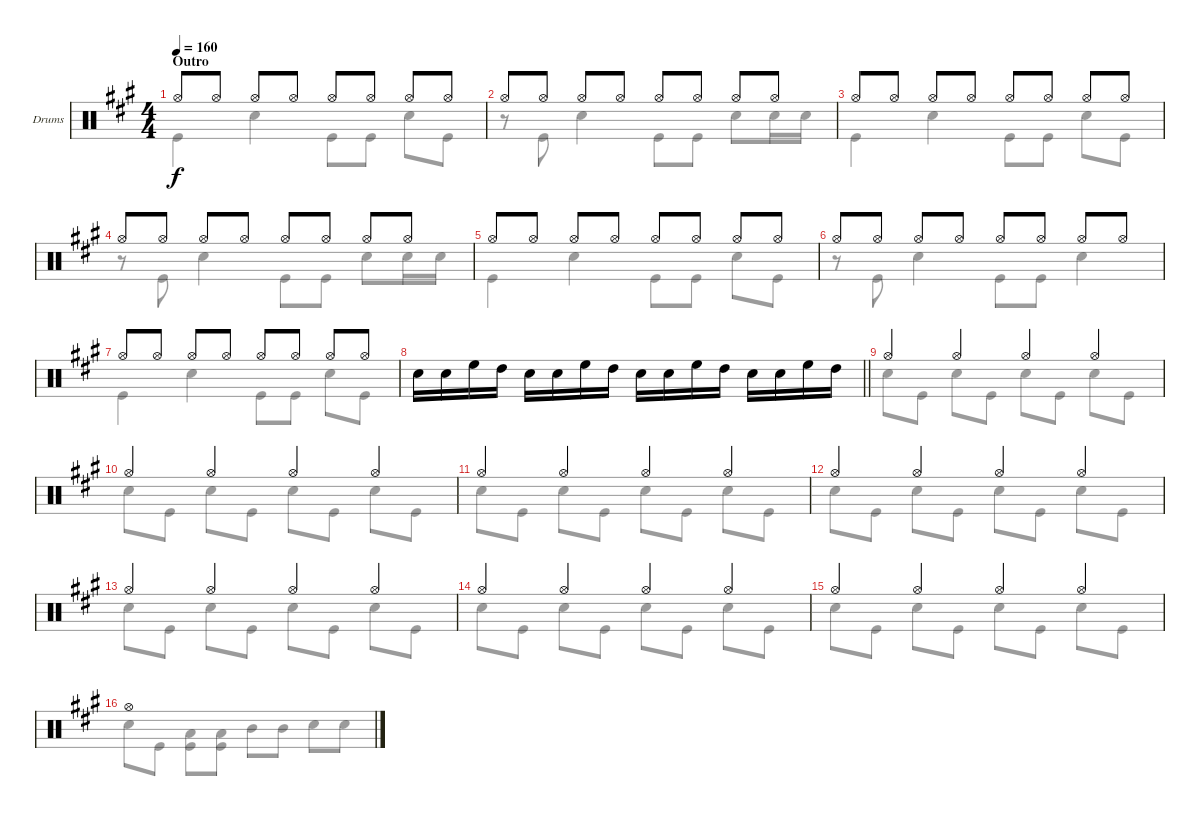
\bracketExtendMode groupsimilarinstruments
\firstSystemTrackNameOrientation horizontal
\otherSystemsTrackNameOrientation horizontal
\track ("Drumkit" "Drums") {instrument percussion}
\staff {score}
\articulation defaults
\voice
\ts (4 4)
\section ("" "Outro")
\tempo 160
\clef neutral
\ks a "Hi-Hat (open)".8{dy f} "Hi-Hat (open)".8 "Hi-Hat (open)".8 "Hi-Hat (open)".8 "Hi-Hat (open)".8 "Hi-Hat (open)".8 "Hi-Hat (open)".8 "Hi-Hat (open)".8
|
"Hi-Hat (open)".8 "Hi-Hat (open)".8 "Hi-Hat (open)".8 "Hi-Hat (open)".8 "Hi-Hat (open)".8 "Hi-Hat (open)".8 "Hi-Hat (open)".8 "Hi-Hat (open)".8 |
"Hi-Hat (open)".8 "Hi-Hat (open)".8 "Hi-Hat (open)".8 "Hi-Hat (open)".8 "Hi-Hat (open)".8 "Hi-Hat (open)".8 "Hi-Hat (open)".8 "Hi-Hat (open)".8 |
"Hi-Hat (open)".8 "Hi-Hat (open)".8 "Hi-Hat (open)".8 "Hi-Hat (open)".8 "Hi-Hat (open)".8 "Hi-Hat (open)".8 "Hi-Hat (open)".8 "Hi-Hat (open)".8 |
"Hi-Hat (open)".8 "Hi-Hat (open)".8 "Hi-Hat (open)".8 "Hi-Hat (open)".8 "Hi-Hat (open)".8 "Hi-Hat (open)".8 "Hi-Hat (open)".8 "Hi-Hat (open)".8 |
"Hi-Hat (open)".8 "Hi-Hat (open)".8 "Hi-Hat (open)".8 "Hi-Hat (open)".8 "Hi-Hat (open)".8 "Hi-Hat (open)".8 "Hi-Hat (open)".8 "Hi-Hat (open)".8 |
"Hi-Hat (open)".8 "Hi-Hat (open)".8 "Hi-Hat (open)".8 "Hi-Hat (open)".8 "Hi-Hat (open)".8 "Hi-Hat (open)".8 "Hi-Hat (open)".8 "Hi-Hat (open)".8 |
\barLineRight lightlight "Snare (hit) 2".16 "Snare (hit) 2".16 "High Floor Tom (hit)".16 "High Tom (hit)".16 "Snare (hit) 2".16 "Snare (hit) 2".16 "High Floor Tom (hit)".16 "High Tom (hit)".16 "Snare (hit) 2".16 "Snare (hit) 2".16 "High Floor Tom (hit)".16 "High Tom (hit)".16 "Snare (hit) 2".16 "Snare (hit) 2".16 "High Floor Tom (hit)".16 "High Tom (hit)".16
|
"Hi-Hat (open)".4 "Hi-Hat (open)".4 "Hi-Hat (open)".4 "Hi-Hat (open)".4 |
"Hi-Hat (open)".4 "Hi-Hat (open)".4 "Hi-Hat (open)".4 "Hi-Hat (open)".4 |
"Hi-Hat (open)".4 "Hi-Hat (open)".4 "Hi-Hat (open)".4 "Hi-Hat (open)".4 |
"Hi-Hat (open)".4 "Hi-Hat (open)".4 "Hi-Hat (open)".4 "Hi-Hat (open)".4 |
"Hi-Hat (open)".4 "Hi-Hat (open)".4 "Hi-Hat (open)".4 "Hi-Hat (open)".4 |
"Hi-Hat (open)".4 "Hi-Hat (open)".4 "Hi-Hat (open)".4 "Hi-Hat (open)".4 |
"Hi-Hat (open)".4 "Hi-Hat (open)".4 "Hi-Hat (open)".4 "Hi-Hat (open)".4 |
"Hi-Hat (open)".1
\voice
\clef neutral
\ottava regular
\simile none
\ks a "Kick (hit)".4{dy f} "Snare (hit) 2".4 "Kick (hit)".8 "Kick (hit)".8 "Snare (hit) 2".8 "Kick (hit)".8
|
r.8 "Kick (hit)".8 "Snare (hit) 2".4 "Kick (hit)".8 "Kick (hit)".8 "Snare (hit) 2".8 "Snare (hit) 2".16 "Snare (hit) 2".16 |
"Kick (hit)".4 "Snare (hit) 2".4 "Kick (hit)".8 "Kick (hit)".8 "Snare (hit) 2".8 "Kick (hit)".8 |
r.8 "Kick (hit)".8 "Snare (hit) 2".4 "Kick (hit)".8 "Kick (hit)".8 "Snare (hit) 2".8 "Snare (hit) 2".16 "Snare (hit) 2".16 |
"Kick (hit)".4 "Snare (hit) 2".4 "Kick (hit)".8 "Kick (hit)".8 "Snare (hit) 2".8 "Kick (hit)".8 |
r.8 "Kick (hit)".8 "Snare (hit) 2".4 "Kick (hit)".8 "Kick (hit)".8 "Snare (hit) 2".4 |
"Kick (hit)".4 "Snare (hit) 2".4 "Kick (hit)".8 "Kick (hit)".8 "Snare (hit) 2".8 "Kick (hit)".8 |
\barLineRight lightlight
|
"Snare (hit) 2".8 "Kick (hit)".8 "Snare (hit) 2".8 "Kick (hit)".8 "Snare (hit) 2".8 "Kick (hit)".8 "Snare (hit) 2".8 "Kick (hit)".8 |
"Snare (hit) 2".8 "Kick (hit)".8 "Snare (hit) 2".8 "Kick (hit)".8 "Snare (hit) 2".8 "Kick (hit)".8 "Snare (hit) 2".8 "Kick (hit)".8 |
"Snare (hit) 2".8 "Kick (hit)".8 "Snare (hit) 2".8 "Kick (hit)".8 "Snare (hit) 2".8 "Kick (hit)".8 "Snare (hit) 2".8 "Kick (hit)".8 |
"Snare (hit) 2".8 "Kick (hit)".8 "Snare (hit) 2".8 "Kick (hit)".8 "Snare (hit) 2".8 "Kick (hit)".8 "Snare (hit) 2".8 "Kick (hit)".8 |
"Snare (hit) 2".8 "Kick (hit)".8 "Snare (hit) 2".8 "Kick (hit)".8 "Snare (hit) 2".8 "Kick (hit)".8 "Snare (hit) 2".8 "Kick (hit)".8 |
"Snare (hit) 2".8 "Kick (hit)".8 "Snare (hit) 2".8 "Kick (hit)".8 "Snare (hit) 2".8 "Kick (hit)".8 "Snare (hit) 2".8 "Kick (hit)".8 |
"Snare (hit) 2".8 "Kick (hit)".8 "Snare (hit) 2".8 "Kick (hit)".8 "Snare (hit) 2".8 "Kick (hit)".8 "Snare (hit) 2".8 "Kick (hit)".8 |
"Snare (hit) 2".8 "Kick (hit)".8 ("Low Tom (hit)" "Kick (hit)").8 ("Low Tom (hit)" "Kick (hit)").8 "Mid Tom (hit)".8 "Mid Tom (hit)".8 "Snare (hit) 2".8 "Snare (hit) 2".8
